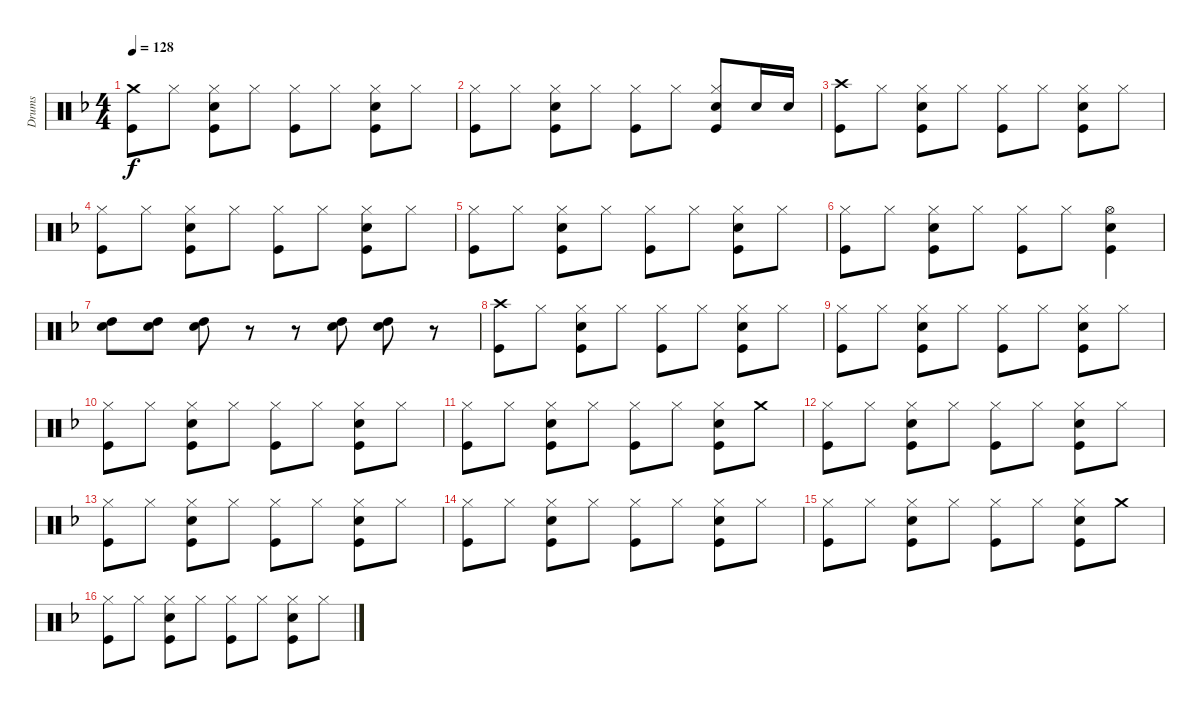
\track ("Drums" "Drums") {instrument percussion}
\staff {score}
\articulation defaults
\ts (4 4)
\tempo 128
\clef neutral
\ks f
("Crash medium (hit)" "Kick (hit)").8{dy f} "Hi-Hat (closed)".8 ("Hi-Hat (closed)" "Snare (hit) 2" "Kick (hit)").8 "Hi-Hat (closed)".8 ("Hi-Hat (closed)" "Kick (hit)").8 "Hi-Hat (closed)".8 ("Hi-Hat (closed)" "Snare (hit) 2" "Kick (hit)").8 "Hi-Hat (closed)".8 |
("Hi-Hat (closed)" "Kick (hit)").8 "Hi-Hat (closed)".8 ("Hi-Hat (closed)" "Snare (hit) 2" "Kick (hit)").8 "Hi-Hat (closed)".8 ("Hi-Hat (closed)" "Kick (hit)").8 "Hi-Hat (closed)".8 ("Hi-Hat (closed)" "Snare (hit) 2" "Kick (hit)").8 "Snare (hit) 2".16 "Snare (hit) 2".16 |
("Crash high (hit)" "Kick (hit)").8 "Hi-Hat (closed)".8 ("Hi-Hat (closed)" "Snare (hit) 2" "Kick (hit)").8 "Hi-Hat (closed)".8 ("Hi-Hat (closed)" "Kick (hit)").8 "Hi-Hat (closed)".8 ("Hi-Hat (closed)" "Snare (hit) 2" "Kick (hit)").8 "Hi-Hat (closed)".8 |
("Hi-Hat (closed)" "Kick (hit)").8 "Hi-Hat (closed)".8 ("Hi-Hat (closed)" "Snare (hit) 2" "Kick (hit)").8 "Hi-Hat (closed)".8 ("Hi-Hat (closed)" "Kick (hit)").8 "Hi-Hat (closed)".8 ("Hi-Hat (closed)" "Snare (hit) 2" "Kick (hit)").8 "Hi-Hat (closed)".8 |
("Hi-Hat (closed)" "Kick (hit)").8 "Hi-Hat (closed)".8 ("Hi-Hat (closed)" "Snare (hit) 2" "Kick (hit)").8 "Hi-Hat (closed)".8 ("Hi-Hat (closed)" "Kick (hit)").8 "Hi-Hat (closed)".8 ("Hi-Hat (closed)" "Snare (hit) 2" "Kick (hit)").8 "Hi-Hat (closed)".8 |
("Hi-Hat (closed)" "Kick (hit)").8 "Hi-Hat (closed)".8 ("Hi-Hat (closed)" "Snare (hit) 2" "Kick (hit)").8 "Hi-Hat (closed)".8 ("Hi-Hat (closed)" "Kick (hit)").8 "Hi-Hat (closed)".8 ("Hi-Hat (open)" "Snare (hit) 2" "Kick (hit)").4 |
("High Tom (hit)" "Snare (hit) 2").8 ("High Tom (hit)" "Snare (hit) 2").8 ("High Tom (hit)" "Snare (hit) 2").8 r.8 r.8 ("High Tom (hit)" "Snare (hit) 2").8 ("High Tom (hit)" "Snare (hit) 2").8 r.8 |
("Crash high (hit)" "Kick (hit)").8 "Hi-Hat (closed)".8 ("Hi-Hat (closed)" "Snare (hit) 2" "Kick (hit)").8 "Hi-Hat (closed)".8 ("Hi-Hat (closed)" "Kick (hit)").8 "Hi-Hat (closed)".8 ("Hi-Hat (closed)" "Snare (hit) 2" "Kick (hit)").8 "Hi-Hat (closed)".8 |
("Hi-Hat (closed)" "Kick (hit)").8 "Hi-Hat (closed)".8 ("Hi-Hat (closed)" "Snare (hit) 2" "Kick (hit)").8 "Hi-Hat (closed)".8 ("Hi-Hat (closed)" "Kick (hit)").8 "Hi-Hat (closed)".8 ("Hi-Hat (closed)" "Snare (hit) 2" "Kick (hit)").8 "Hi-Hat (closed)".8 |
("Hi-Hat (closed)" "Kick (hit)").8 "Hi-Hat (closed)".8 ("Hi-Hat (closed)" "Snare (hit) 2" "Kick (hit)").8 "Hi-Hat (closed)".8 ("Hi-Hat (closed)" "Kick (hit)").8 "Hi-Hat (closed)".8 ("Hi-Hat (closed)" "Snare (hit) 2" "Kick (hit)").8 "Hi-Hat (closed)".8 |
("Hi-Hat (closed)" "Kick (hit)").8 "Hi-Hat (closed)".8 ("Hi-Hat (closed)" "Snare (hit) 2" "Kick (hit)").8 "Hi-Hat (closed)".8 ("Hi-Hat (closed)" "Kick (hit)").8 "Hi-Hat (closed)".8 ("Hi-Hat (closed)" "Snare (hit) 2" "Kick (hit)").8 "Crash medium (hit)".8 |
("Hi-Hat (closed)" "Kick (hit)").8 "Hi-Hat (closed)".8 ("Hi-Hat (closed)" "Snare (hit) 2" "Kick (hit)").8 "Hi-Hat (closed)".8 ("Hi-Hat (closed)" "Kick (hit)").8 "Hi-Hat (closed)".8 ("Hi-Hat (closed)" "Snare (hit) 2" "Kick (hit)").8 "Hi-Hat (closed)".8 |
("Hi-Hat (closed)" "Kick (hit)").8 "Hi-Hat (closed)".8 ("Hi-Hat (closed)" "Snare (hit) 2" "Kick (hit)").8 "Hi-Hat (closed)".8 ("Hi-Hat (closed)" "Kick (hit)").8 "Hi-Hat (closed)".8 ("Hi-Hat (closed)" "Snare (hit) 2" "Kick (hit)").8 "Hi-Hat (closed)".8 |
("Hi-Hat (closed)" "Kick (hit)").8 "Hi-Hat (closed)".8 ("Hi-Hat (closed)" "Snare (hit) 2" "Kick (hit)").8 "Hi-Hat (closed)".8 ("Hi-Hat (closed)" "Kick (hit)").8 "Hi-Hat (closed)".8 ("Hi-Hat (closed)" "Snare (hit) 2" "Kick (hit)").8 "Hi-Hat (closed)".8 |
("Hi-Hat (closed)" "Kick (hit)").8 "Hi-Hat (closed)".8 ("Hi-Hat (closed)" "Snare (hit) 2" "Kick (hit)").8 "Hi-Hat (closed)".8 ("Hi-Hat (closed)" "Kick (hit)").8 "Hi-Hat (closed)".8 ("Hi-Hat (closed)" "Snare (hit) 2" "Kick (hit)").8 "Crash medium (hit)".8 |
("Hi-Hat (closed)" "Kick (hit)").8 "Hi-Hat (closed)".8 ("Hi-Hat (closed)" "Snare (hit) 2" "Kick (hit)").8 "Hi-Hat (closed)".8 ("Hi-Hat (closed)" "Kick (hit)").8 "Hi-Hat (closed)".8 ("Hi-Hat (closed)" "Snare (hit) 2" "Kick (hit)").8 "Hi-Hat (closed)".8
